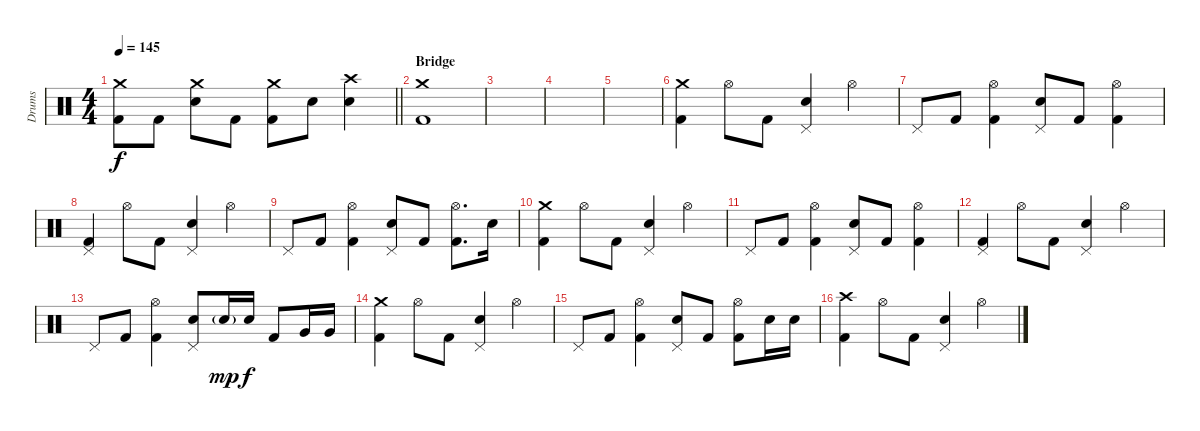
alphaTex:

\track ("Drums" "Drums") {instrument percussion}
\staff {score}
\articulation defaults
\ts (4 4)
\tempo 145
\clef neutral
\barLineRight lightlight
\ks c
("Crash medium (hit)" "Kick (hit) 2").8{dy f} "Kick (hit) 2".8 ("Crash medium (hit)" "Electric Snare (hit)").8 "Kick (hit) 2".8 ("Crash medium (hit)" "Kick (hit) 2").8 "Electric Snare (hit)".8 ("Crash high (hit)" "Electric Snare (hit)").4 |
\section ("" "Bridge")
("Crash medium (hit)" "Kick (hit) 2").1 |
|
|
|
("Crash medium (hit)" "Kick (hit) 2").4 "Hi-Hat (open)".8 "Kick (hit) 2".8 ("Pedal Hi-Hat (hit)" "Electric Snare (hit)").4 "Hi-Hat (open)".4 |
"Pedal Hi-Hat (hit)".8 "Kick (hit) 2".8 ("Hi-Hat (open)" "Kick (hit) 2").4 ("Pedal Hi-Hat (hit)" "Electric Snare (hit)").8 "Kick (hit) 2".8 ("Hi-Hat (open)" "Kick (hit) 2").4 |
("Pedal Hi-Hat (hit)" "Kick (hit) 2").4 "Hi-Hat (open)".8 "Kick (hit) 2".8 ("Pedal Hi-Hat (hit)" "Electric Snare (hit)").4 "Hi-Hat (open)".4 |
"Pedal Hi-Hat (hit)".8 "Kick (hit) 2".8 ("Hi-Hat (open)" "Kick (hit) 2").4 ("Pedal Hi-Hat (hit)" "Electric Snare (hit)").8 "Kick (hit) 2".8 ("Hi-Hat (open)" "Kick (hit) 2").8{d} "Electric Snare (hit)".16 |
("Crash medium (hit)" "Kick (hit) 2").4 "Hi-Hat (open)".8 "Kick (hit) 2".8 ("Pedal Hi-Hat (hit)" "Electric Snare (hit)").4 "Hi-Hat (open)".4 |
"Pedal Hi-Hat (hit)".8 "Kick (hit) 2".8 ("Hi-Hat (open)" "Kick (hit) 2").4 ("Pedal Hi-Hat (hit)" "Electric Snare (hit)").8 "Kick (hit) 2".8 ("Hi-Hat (open)" "Kick (hit) 2").4 |
("Pedal Hi-Hat (hit)" "Kick (hit) 2").4 "Hi-Hat (open)".8 "Kick (hit) 2".8 ("Pedal Hi-Hat (hit)" "Electric Snare (hit)").4 "Hi-Hat (open)".4 |
"Pedal Hi-Hat (hit)".8 "Kick (hit) 2".8 ("Hi-Hat (open)" "Kick (hit) 2").4 ("Pedal Hi-Hat (hit)" "Electric Snare (hit)").8 "Electric Snare (hit)"{g}.16{dy mp} "Electric Snare (hit)".16{dy f} "Kick (hit) 2".8 "Very Low Tom (hit)".16 "Very Low Tom (hit)".16 |
("Crash medium (hit)" "Kick (hit) 2").4 "Hi-Hat (open)".8 "Kick (hit) 2".8 ("Pedal Hi-Hat (hit)" "Electric Snare (hit)").4 "Hi-Hat (open)".4 |
"Pedal Hi-Hat (hit)".8 "Kick (hit) 2".8 ("Hi-Hat (open)" "Kick (hit) 2").4 ("Pedal Hi-Hat (hit)" "Electric Snare (hit)").8 "Kick (hit) 2".8 ("Hi-Hat (open)" "Kick (hit) 2").8 "Electric Snare (hit)".16 "Electric Snare (hit)".16 |
("Crash high (hit)" "Kick (hit) 2").4 "Hi-Hat (open)".8 "Kick (hit) 2".8 ("Pedal Hi-Hat (hit)" "Electric Snare (hit)").4 "Hi-Hat (open)".4
